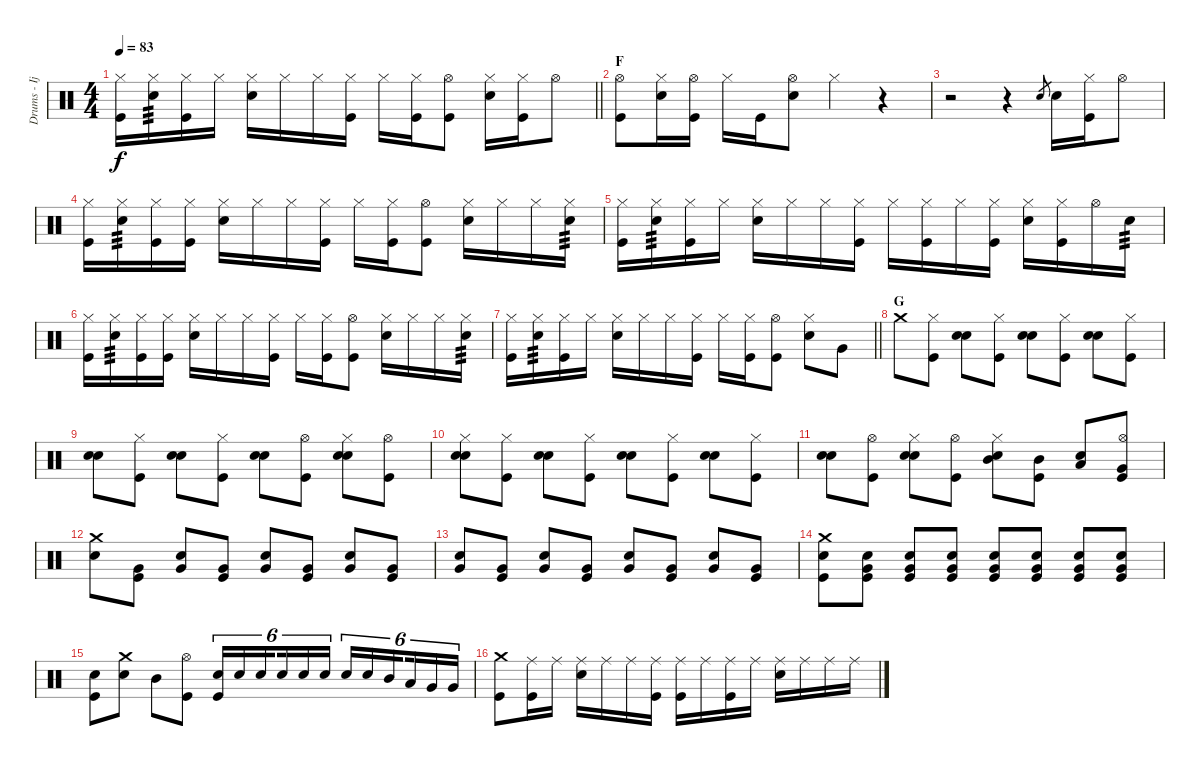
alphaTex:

\track ("Drums - Ijichi" "Drums - Ij") {instrument percussion}
\staff {score}
\articulation defaults
\ts (4 4)
\tempo 83
\clef neutral
\barLineRight lightlight
\ks c
("Hi-Hat (closed)" "Kick (hit)").16{dy f} ("Hi-Hat (closed)" "Electric Snare (hit)").16{tp 3} ("Hi-Hat (closed)" "Kick (hit)").16 "Hi-Hat (closed)".16 ("Hi-Hat (closed)" "Electric Snare (hit)").16 "Hi-Hat (closed)".16 "Hi-Hat (closed)".16 ("Hi-Hat (closed)" "Kick (hit)").16 "Hi-Hat (closed)".16 ("Hi-Hat (closed)" "Kick (hit)").16 ("Hi-Hat (open)" "Kick (hit)").8 ("Hi-Hat (closed)" "Electric Snare (hit)").16 ("Hi-Hat (closed)" "Kick (hit)").16 "Hi-Hat (open)".8 |
\section ("" "F")
("Hi-Hat (open)" "Kick (hit)").8 ("Hi-Hat (closed)" "Electric Snare (hit)").16 ("Hi-Hat (open)" "Kick (hit)").16 "Hi-Hat (closed)".16 "Kick (hit)".16 ("Hi-Hat (open)" "Electric Snare (hit)").8 "Hi-Hat (closed)".4 r.4 |
r.2 r.4 "Electric Snare (hit)".8{gr} "Electric Snare (hit)".16 ("Hi-Hat (closed)" "Kick (hit)").16 "Hi-Hat (open)".8 |
("Hi-Hat (closed)" "Kick (hit)").16 ("Hi-Hat (closed)" "Electric Snare (hit)").16{tp 3} ("Hi-Hat (closed)" "Kick (hit)").16 ("Hi-Hat (closed)" "Kick (hit)").16 ("Hi-Hat (closed)" "Electric Snare (hit)").16 "Hi-Hat (closed)".16 "Hi-Hat (closed)".16 ("Hi-Hat (closed)" "Kick (hit)").16 "Hi-Hat (closed)".16 ("Hi-Hat (closed)" "Kick (hit)").16 ("Hi-Hat (open)" "Kick (hit)").8 ("Hi-Hat (closed)" "Electric Snare (hit)").16 "Hi-Hat (closed)".16 "Hi-Hat (closed)".16 ("Hi-Hat (closed)" "Electric Snare (hit)").16{tp 3} |
("Hi-Hat (closed)" "Kick (hit)").16 ("Hi-Hat (closed)" "Electric Snare (hit)").16{tp 3} ("Hi-Hat (closed)" "Kick (hit)").16 "Hi-Hat (closed)".16 ("Hi-Hat (closed)" "Electric Snare (hit)").16 "Hi-Hat (closed)".16 "Hi-Hat (closed)".16 ("Hi-Hat (closed)" "Kick (hit)").16 "Hi-Hat (closed)".16 ("Hi-Hat (closed)" "Kick (hit)").16 "Hi-Hat (closed)".16 ("Hi-Hat (closed)" "Kick (hit)").16 ("Hi-Hat (closed)" "Electric Snare (hit)").16 ("Hi-Hat (closed)" "Kick (hit)").16 "Hi-Hat (open)".16 "Electric Snare (hit)".16{tp 3} |
("Hi-Hat (closed)" "Kick (hit)").16 ("Hi-Hat (closed)" "Electric Snare (hit)").16{tp 3} ("Hi-Hat (closed)" "Kick (hit)").16 ("Hi-Hat (closed)" "Kick (hit)").16 ("Hi-Hat (closed)" "Electric Snare (hit)").16 "Hi-Hat (closed)".16 "Hi-Hat (closed)".16 ("Hi-Hat (closed)" "Kick (hit)").16 "Hi-Hat (closed)".16 ("Hi-Hat (closed)" "Kick (hit)").16 ("Hi-Hat (open)" "Kick (hit)").8 ("Hi-Hat (closed)" "Electric Snare (hit)").16 "Hi-Hat (closed)".16 "Hi-Hat (closed)".16 ("Hi-Hat (closed)" "Electric Snare (hit)").16{tp 3} |
\barLineRight lightlight
("Hi-Hat (closed)" "Kick (hit)").16 ("Hi-Hat (closed)" "Electric Snare (hit)").16{tp 3} ("Hi-Hat (closed)" "Kick (hit)").16 "Hi-Hat (closed)".16 ("Hi-Hat (closed)" "Electric Snare (hit)").16 "Hi-Hat (closed)".16 "Hi-Hat (closed)".16 ("Hi-Hat (closed)" "Kick (hit)").16 "Hi-Hat (closed)".16 ("Hi-Hat (closed)" "Kick (hit)").16 ("Hi-Hat (open)" "Kick (hit)").8 ("Hi-Hat (closed)" "Electric Snare (hit)").8 "Very Low Tom (hit)".8 |
\section ("" "G")
"Crash medium (hit)".8 ("Hi-Hat (closed)" "Kick (hit)").8 ("Electric Snare (hit)" "Electric Snare (hit)").8 ("Hi-Hat (closed)" "Kick (hit)").8 ("Electric Snare (hit)" "Electric Snare (hit)").8 ("Hi-Hat (closed)" "Kick (hit)").8 ("Electric Snare (hit)" "Electric Snare (hit)").8 ("Hi-Hat (closed)" "Kick (hit)").8 |
("Electric Snare (hit)" "Electric Snare (hit)").8 ("Hi-Hat (closed)" "Kick (hit)").8 ("Electric Snare (hit)" "Electric Snare (hit)").8 ("Hi-Hat (closed)" "Kick (hit)").8 ("Electric Snare (hit)" "Electric Snare (hit)").8 ("Hi-Hat (open)" "Kick (hit)").8 ("Hi-Hat (closed)" "Electric Snare (hit)" "Electric Snare (hit)").8 ("Hi-Hat (open)" "Kick (hit)").8 |
("Hi-Hat (closed)" "Electric Snare (hit)" "Electric Snare (hit)").8 ("Hi-Hat (closed)" "Kick (hit)").8 ("Electric Snare (hit)" "Electric Snare (hit)").8 ("Hi-Hat (closed)" "Kick (hit)").8 ("Electric Snare (hit)" "Electric Snare (hit)").8 ("Hi-Hat (closed)" "Kick (hit)").8 ("Electric Snare (hit)" "Electric Snare (hit)").8 ("Hi-Hat (closed)" "Kick (hit)").8 |
("Electric Snare (hit)" "Electric Snare (hit)").8 ("Hi-Hat (open)" "Kick (hit)").8 ("Hi-Hat (closed)" "Electric Snare (hit)" "Electric Snare (hit)").8 ("Hi-Hat (open)" "Kick (hit)").8 ("Hi-Hat (closed)" "Electric Snare (hit)" "Mid Tom (hit)").8 ("Mid Tom (hit)" "Kick (hit)").8 ("Electric Snare (hit)" "Low Tom (hit)").8 ("Hi-Hat (open)" "Very Low Tom (hit)" "Kick (hit)").8 |
("Crash medium (hit)" "Electric Snare (hit)").8 ("Very Low Tom (hit)" "Kick (hit)").8 ("Electric Snare (hit)" "Very Low Tom (hit)").8 ("Very Low Tom (hit)" "Kick (hit)").8 ("Electric Snare (hit)" "Very Low Tom (hit)").8 ("Very Low Tom (hit)" "Kick (hit)").8 ("Electric Snare (hit)" "Very Low Tom (hit)").8 ("Very Low Tom (hit)" "Kick (hit)").8 |
("Electric Snare (hit)" "Very Low Tom (hit)").8 ("Very Low Tom (hit)" "Kick (hit)").8 ("Electric Snare (hit)" "Very Low Tom (hit)").8 ("Very Low Tom (hit)" "Kick (hit)").8 ("Electric Snare (hit)" "Very Low Tom (hit)").8 ("Very Low Tom (hit)" "Kick (hit)").8 ("Electric Snare (hit)" "Very Low Tom (hit)").8 ("Very Low Tom (hit)" "Kick (hit)").8 |
("Crash medium (hit)" "Electric Snare (hit)" "Kick (hit)").8{volume 11} ("Electric Snare (hit)" "Very Low Tom (hit)" "Kick (hit)").8{volume 13} ("Electric Snare (hit)" "Very Low Tom (hit)" "Kick (hit)").8 ("Electric Snare (hit)" "Very Low Tom (hit)" "Kick (hit)").8 ("Electric Snare (hit)" "Very Low Tom (hit)" "Kick (hit)").8 ("Electric Snare (hit)" "Very Low Tom (hit)" "Kick (hit)").8 ("Electric Snare (hit)" "Very Low Tom (hit)" "Kick (hit)").8 ("Electric Snare (hit)" "Very Low Tom (hit)" "Kick (hit)").8 |
("Electric Snare (hit)" "Kick (hit)").8 ("Crash medium (hit)" "Electric Snare (hit)").8 "Mid Tom (hit)".8 ("Hi-Hat (open)" "Kick (hit)").8 ("Electric Snare (hit)" "Kick (hit)").16{tu (6 4)} "Electric Snare (hit)".16{tu (6 4)} "Electric Snare (hit)".16{tu (6 4) beam splitsecondary} "Electric Snare (hit)".16{tu (6 4)} "Electric Snare (hit)".16{tu (6 4)} "Electric Snare (hit)".16{tu (6 4)} "Electric Snare (hit)".16{tu (6 4)} "Electric Snare (hit)".16{tu (6 4)} "Mid Tom (hit)".16{tu (6 4) beam splitsecondary} "Low Tom (hit)".16{tu (6 4)} "Very Low Tom (hit)".16{tu (6 4)} "Very Low Tom (hit)".16{tu (6 4)} |
("Crash medium (hit)" "Kick (hit)").8 ("Ride (middle)" "Kick (hit)").16 "Ride (middle)".16 ("Ride (middle)" "Electric Snare (hit)").16 "Ride (middle)".16 "Ride (middle)".16 ("Ride (middle)" "Kick (hit)").16 ("Ride (middle)" "Kick (hit)").16 "Ride (middle)".16 ("Ride (middle)" "Kick (hit)").16 "Ride (middle)".16 ("Ride (middle)" "Electric Snare (hit)").16 "Ride (middle)".16 "Ride (middle)".16 "Ride (middle)".16
